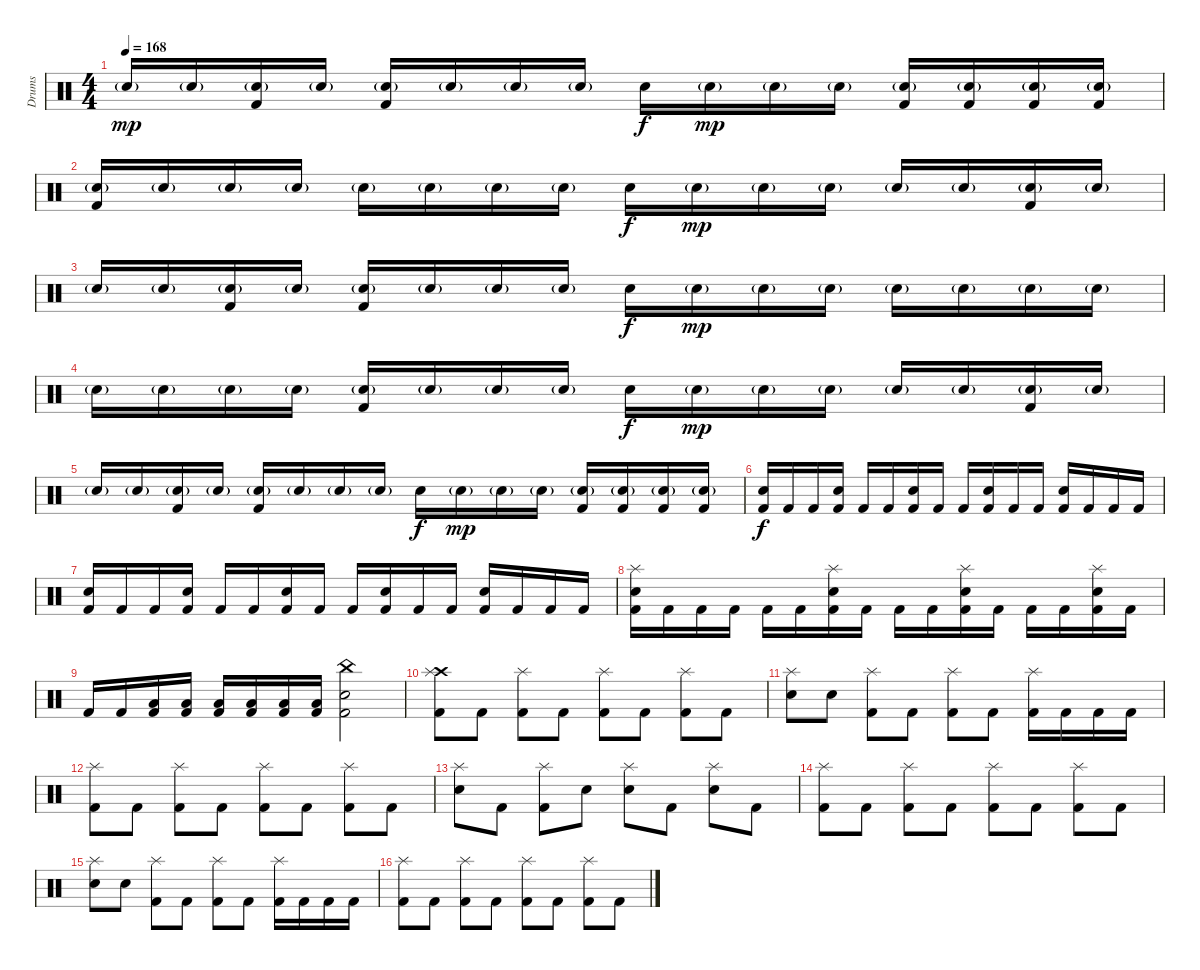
\track ("Drums" "Drums") {instrument percussion}
\staff {score}
\articulation defaults
\ts (4 4)
\tempo 168
\clef neutral
\ks c "Electric Snare (hit)"{g}.16{dy mp} "Electric Snare (hit)"{g}.16
("Electric Snare (hit)"{g} "Kick (hit) 2").16 "Electric Snare (hit)"{g}.16 ("Electric Snare (hit)"{g} "Kick (hit) 2").16 "Electric Snare (hit)"{g}.16 "Electric Snare (hit)"{g}.16 "Electric Snare (hit)"{g}.16 "Electric Snare (hit)".16{dy f} "Electric Snare (hit)"{g}.16{dy mp} "Electric Snare (hit)"{g}.16 "Electric Snare (hit)"{g}.16 ("Electric Snare (hit)"{g} "Kick (hit) 2").16 ("Electric Snare (hit)"{g} "Kick (hit) 2").16 ("Electric Snare (hit)"{g} "Kick (hit) 2").16 ("Electric Snare (hit)"{g} "Kick (hit) 2").16 |
("Electric Snare (hit)"{g} "Kick (hit) 2").16 "Electric Snare (hit)"{g}.16 "Electric Snare (hit)"{g}.16 "Electric Snare (hit)"{g}.16 "Electric Snare (hit)"{g}.16 "Electric Snare (hit)"{g}.16 "Electric Snare (hit)"{g}.16 "Electric Snare (hit)"{g}.16 "Electric Snare (hit)".16{dy f} "Electric Snare (hit)"{g}.16{dy mp} "Electric Snare (hit)"{g}.16 "Electric Snare (hit)"{g}.16 "Electric Snare (hit)"{g}.16 "Electric Snare (hit)"{g}.16 ("Electric Snare (hit)"{g} "Kick (hit) 2").16 "Electric Snare (hit)"{g}.16 |
"Electric Snare (hit)"{g}.16 "Electric Snare (hit)"{g}.16 ("Electric Snare (hit)"{g} "Kick (hit) 2").16 "Electric Snare (hit)"{g}.16 ("Electric Snare (hit)"{g} "Kick (hit) 2").16 "Electric Snare (hit)"{g}.16 "Electric Snare (hit)"{g}.16 "Electric Snare (hit)"{g}.16 "Electric Snare (hit)".16{dy f} "Electric Snare (hit)"{g}.16{dy mp} "Electric Snare (hit)"{g}.16 "Electric Snare (hit)"{g}.16 "Electric Snare (hit)"{g}.16 "Electric Snare (hit)"{g}.16 "Electric Snare (hit)"{g}.16 "Electric Snare (hit)"{g}.16 |
"Electric Snare (hit)"{g}.16 "Electric Snare (hit)"{g}.16 "Electric Snare (hit)"{g}.16 "Electric Snare (hit)"{g}.16 ("Electric Snare (hit)"{g} "Kick (hit) 2").16 "Electric Snare (hit)"{g}.16 "Electric Snare (hit)"{g}.16 "Electric Snare (hit)"{g}.16 "Electric Snare (hit)".16{dy f} "Electric Snare (hit)"{g}.16{dy mp} "Electric Snare (hit)"{g}.16 "Electric Snare (hit)"{g}.16 "Electric Snare (hit)"{g}.16 "Electric Snare (hit)"{g}.16 ("Electric Snare (hit)"{g} "Kick (hit) 2").16 "Electric Snare (hit)"{g}.16 |
"Electric Snare (hit)"{g}.16 "Electric Snare (hit)"{g}.16 ("Electric Snare (hit)"{g} "Kick (hit) 2").16 "Electric Snare (hit)"{g}.16 ("Electric Snare (hit)"{g} "Kick (hit) 2").16 "Electric Snare (hit)"{g}.16 "Electric Snare (hit)"{g}.16 "Electric Snare (hit)"{g}.16 "Electric Snare (hit)".16{dy f} "Electric Snare (hit)"{g}.16{dy mp} "Electric Snare (hit)"{g}.16 "Electric Snare (hit)"{g}.16 ("Electric Snare (hit)"{g} "Kick (hit) 2").16 ("Electric Snare (hit)"{g} "Kick (hit) 2").16 ("Electric Snare (hit)"{g} "Kick (hit) 2").16 ("Electric Snare (hit)"{g} "Kick (hit) 2").16 |
("Electric Snare (hit)" "Kick (hit) 2").16{dy f} "Kick (hit) 2".16 "Kick (hit) 2".16 ("Electric Snare (hit)" "Kick (hit) 2").16 "Kick (hit) 2".16 "Kick (hit) 2".16 ("Electric Snare (hit)" "Kick (hit) 2").16 "Kick (hit) 2".16 "Kick (hit) 2".16 ("Electric Snare (hit)" "Kick (hit) 2").16 "Kick (hit) 2".16 "Kick (hit) 2".16 ("Electric Snare (hit)" "Kick (hit) 2").16 "Kick (hit) 2".16 "Kick (hit) 2".16 "Kick (hit) 2".16 |
("Electric Snare (hit)" "Kick (hit) 2").16 "Kick (hit) 2".16 "Kick (hit) 2".16 ("Electric Snare (hit)" "Kick (hit) 2").16 "Kick (hit) 2".16 "Kick (hit) 2".16 ("Electric Snare (hit)" "Kick (hit) 2").16 "Kick (hit) 2".16 "Kick (hit) 2".16 ("Electric Snare (hit)" "Kick (hit) 2").16 "Kick (hit) 2".16 "Kick (hit) 2".16 ("Electric Snare (hit)" "Kick (hit) 2").16 "Kick (hit) 2".16 "Kick (hit) 2".16 "Kick (hit) 2".16 |
("Splash (hit)" "Electric Snare (hit)" "Kick (hit) 2").16 "Kick (hit) 2".16 "Kick (hit) 2".16 "Kick (hit) 2".16 "Kick (hit) 2".16 "Kick (hit) 2".16 ("Splash (hit)" "Electric Snare (hit)" "Kick (hit) 2").16 "Kick (hit) 2".16 "Kick (hit) 2".16 "Kick (hit) 2".16 ("Splash (hit)" "Electric Snare (hit)" "Kick (hit) 2").16 "Kick (hit) 2".16 "Kick (hit) 2".16 "Kick (hit) 2".16 ("Splash (hit)" "Electric Snare (hit)" "Kick (hit) 2").16 "Kick (hit) 2".16 |
"Kick (hit) 2".16 "Kick (hit) 2".16 ("Low Tom (hit)" "Kick (hit) 2").16 ("Low Tom (hit)" "Kick (hit) 2").16 ("Low Tom (hit)" "Kick (hit) 2").16 ("Low Tom (hit)" "Kick (hit) 2").16 ("Low Tom (hit)" "Kick (hit) 2").16 ("Low Tom (hit)" "Kick (hit) 2").16 ("China (hit)" "Electric Snare (hit)" "Kick (hit) 2").2 |
("Crash high (hit)" "Kick (hit) 2" "Splash (hit)").8 "Kick (hit) 2".8 ("Kick (hit) 2" "Splash (hit)").8 "Kick (hit) 2".8 ("Kick (hit) 2" "Splash (hit)").8 "Kick (hit) 2".8 ("Kick (hit) 2" "Splash (hit)").8 "Kick (hit) 2".8 |
("Electric Snare (hit)" "Splash (hit)").8 "Electric Snare (hit)".8 ("Kick (hit) 2" "Splash (hit)").8 "Kick (hit) 2".8 ("Kick (hit) 2" "Splash (hit)").8 "Kick (hit) 2".8 ("Kick (hit) 2" "Splash (hit)").16 "Kick (hit) 2".16 "Kick (hit) 2".16 "Kick (hit) 2".16 |
("Kick (hit) 2" "Splash (hit)").8 "Kick (hit) 2".8 ("Kick (hit) 2" "Splash (hit)").8 "Kick (hit) 2".8 ("Kick (hit) 2" "Splash (hit)").8 "Kick (hit) 2".8 ("Kick (hit) 2" "Splash (hit)").8 "Kick (hit) 2".8 |
("Electric Snare (hit)" "Splash (hit)").8 "Kick (hit) 2".8 ("Kick (hit) 2" "Splash (hit)").8 "Electric Snare (hit)".8 ("Electric Snare (hit)" "Splash (hit)").8 "Kick (hit) 2".8 ("Electric Snare (hit)" "Splash (hit)").8 "Kick (hit) 2".8 |
("Kick (hit) 2" "Splash (hit)").8 "Kick (hit) 2".8 ("Kick (hit) 2" "Splash (hit)").8 "Kick (hit) 2".8 ("Kick (hit) 2" "Splash (hit)").8 "Kick (hit) 2".8 ("Kick (hit) 2" "Splash (hit)").8 "Kick (hit) 2".8 |
("Electric Snare (hit)" "Splash (hit)").8 "Electric Snare (hit)".8 ("Kick (hit) 2" "Splash (hit)").8 "Kick (hit) 2".8 ("Kick (hit) 2" "Splash (hit)").8 "Kick (hit) 2".8 ("Kick (hit) 2" "Splash (hit)").16 "Kick (hit) 2".16 "Kick (hit) 2".16 "Kick (hit) 2".16 |
("Kick (hit) 2" "Splash (hit)").8 "Kick (hit) 2".8 ("Kick (hit) 2" "Splash (hit)").8 "Kick (hit) 2".8 ("Kick (hit) 2" "Splash (hit)").8 "Kick (hit) 2".8 ("Kick (hit) 2" "Splash (hit)").8 "Kick (hit) 2".8
